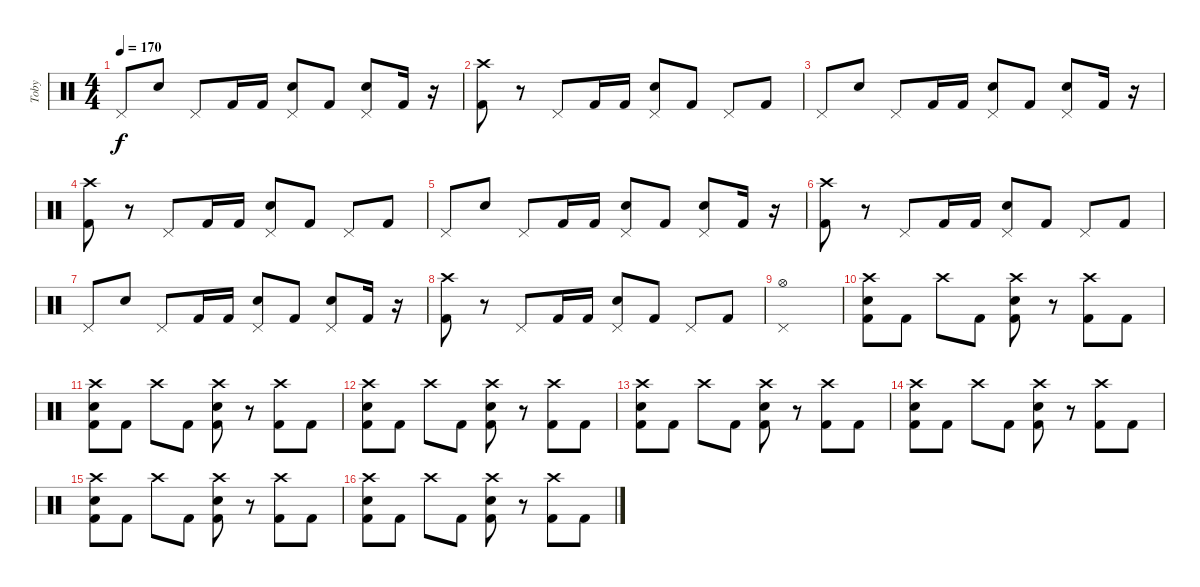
\track ("Toby" "Toby") {instrument percussion}
\staff {score}
\articulation defaults
\ts (4 4)
\tempo 170
\clef neutral
\ks c "Pedal Hi-Hat (hit)".8{dy f} "Electric Snare (hit)".8 "Pedal Hi-Hat (hit)".8 "Kick (hit) 2".16 "Kick (hit) 2".16
("Pedal Hi-Hat (hit)" "Electric Snare (hit)").8 "Kick (hit) 2".8 ("Pedal Hi-Hat (hit)" "Electric Snare (hit)").8 "Kick (hit) 2".16 r.16 |
("Crash high (hit)" "Kick (hit) 2").8 r.8 "Pedal Hi-Hat (hit)".8 "Kick (hit) 2".16 "Kick (hit) 2".16 ("Pedal Hi-Hat (hit)" "Electric Snare (hit)").8 "Kick (hit) 2".8 "Pedal Hi-Hat (hit)".8 "Kick (hit) 2".8 |
"Pedal Hi-Hat (hit)".8 "Electric Snare (hit)".8 "Pedal Hi-Hat (hit)".8 "Kick (hit) 2".16 "Kick (hit) 2".16 ("Pedal Hi-Hat (hit)" "Electric Snare (hit)").8 "Kick (hit) 2".8 ("Pedal Hi-Hat (hit)" "Electric Snare (hit)").8 "Kick (hit) 2".16 r.16 |
("Crash high (hit)" "Kick (hit) 2").8 r.8 "Pedal Hi-Hat (hit)".8 "Kick (hit) 2".16 "Kick (hit) 2".16 ("Pedal Hi-Hat (hit)" "Electric Snare (hit)").8 "Kick (hit) 2".8 "Pedal Hi-Hat (hit)".8 "Kick (hit) 2".8 |
"Pedal Hi-Hat (hit)".8 "Electric Snare (hit)".8 "Pedal Hi-Hat (hit)".8 "Kick (hit) 2".16 "Kick (hit) 2".16 ("Pedal Hi-Hat (hit)" "Electric Snare (hit)").8 "Kick (hit) 2".8 ("Pedal Hi-Hat (hit)" "Electric Snare (hit)").8 "Kick (hit) 2".16 r.16 |
("Crash high (hit)" "Kick (hit) 2").8 r.8 "Pedal Hi-Hat (hit)".8 "Kick (hit) 2".16 "Kick (hit) 2".16 ("Pedal Hi-Hat (hit)" "Electric Snare (hit)").8 "Kick (hit) 2".8 "Pedal Hi-Hat (hit)".8 "Kick (hit) 2".8 |
"Pedal Hi-Hat (hit)".8 "Electric Snare (hit)".8 "Pedal Hi-Hat (hit)".8 "Kick (hit) 2".16 "Kick (hit) 2".16 ("Pedal Hi-Hat (hit)" "Electric Snare (hit)").8 "Kick (hit) 2".8 ("Pedal Hi-Hat (hit)" "Electric Snare (hit)").8 "Kick (hit) 2".16 r.16 |
("Crash high (hit)" "Kick (hit) 2").8 r.8 "Pedal Hi-Hat (hit)".8 "Kick (hit) 2".16 "Kick (hit) 2".16 ("Pedal Hi-Hat (hit)" "Electric Snare (hit)").8 "Kick (hit) 2".8 "Pedal Hi-Hat (hit)".8 "Kick (hit) 2".8 |
("Pedal Hi-Hat (hit)" "Hi-Hat (open)").1 |
("Crash high (hit)" "Electric Snare (hit)" "Kick (hit) 2").8 "Kick (hit) 2".8 "Crash high (hit)".8 "Kick (hit) 2".8 ("Crash high (hit)" "Electric Snare (hit)" "Kick (hit) 2").8 r.8 ("Crash high (hit)" "Kick (hit) 2").8 "Kick (hit) 2".8 |
("Crash high (hit)" "Electric Snare (hit)" "Kick (hit) 2").8 "Kick (hit) 2".8 "Crash high (hit)".8 "Kick (hit) 2".8 ("Crash high (hit)" "Electric Snare (hit)" "Kick (hit) 2").8 r.8 ("Crash high (hit)" "Kick (hit) 2").8 "Kick (hit) 2".8 |
("Crash high (hit)" "Electric Snare (hit)" "Kick (hit) 2").8 "Kick (hit) 2".8 "Crash high (hit)".8 "Kick (hit) 2".8 ("Crash high (hit)" "Electric Snare (hit)" "Kick (hit) 2").8 r.8 ("Crash high (hit)" "Kick (hit) 2").8 "Kick (hit) 2".8 |
("Crash high (hit)" "Electric Snare (hit)" "Kick (hit) 2").8 "Kick (hit) 2".8 "Crash high (hit)".8 "Kick (hit) 2".8 ("Crash high (hit)" "Electric Snare (hit)" "Kick (hit) 2").8 r.8 ("Crash high (hit)" "Kick (hit) 2").8 "Kick (hit) 2".8 |
("Crash high (hit)" "Electric Snare (hit)" "Kick (hit) 2").8 "Kick (hit) 2".8 "Crash high (hit)".8 "Kick (hit) 2".8 ("Crash high (hit)" "Electric Snare (hit)" "Kick (hit) 2").8 r.8 ("Crash high (hit)" "Kick (hit) 2").8 "Kick (hit) 2".8 |
("Crash high (hit)" "Electric Snare (hit)" "Kick (hit) 2").8 "Kick (hit) 2".8 "Crash high (hit)".8 "Kick (hit) 2".8 ("Crash high (hit)" "Electric Snare (hit)" "Kick (hit) 2").8 r.8 ("Crash high (hit)" "Kick (hit) 2").8 "Kick (hit) 2".8 |
("Crash high (hit)" "Electric Snare (hit)" "Kick (hit) 2").8 "Kick (hit) 2".8 "Crash high (hit)".8 "Kick (hit) 2".8 ("Crash high (hit)" "Electric Snare (hit)" "Kick (hit) 2").8 r.8 ("Crash high (hit)" "Kick (hit) 2").8 "Kick (hit) 2".8
